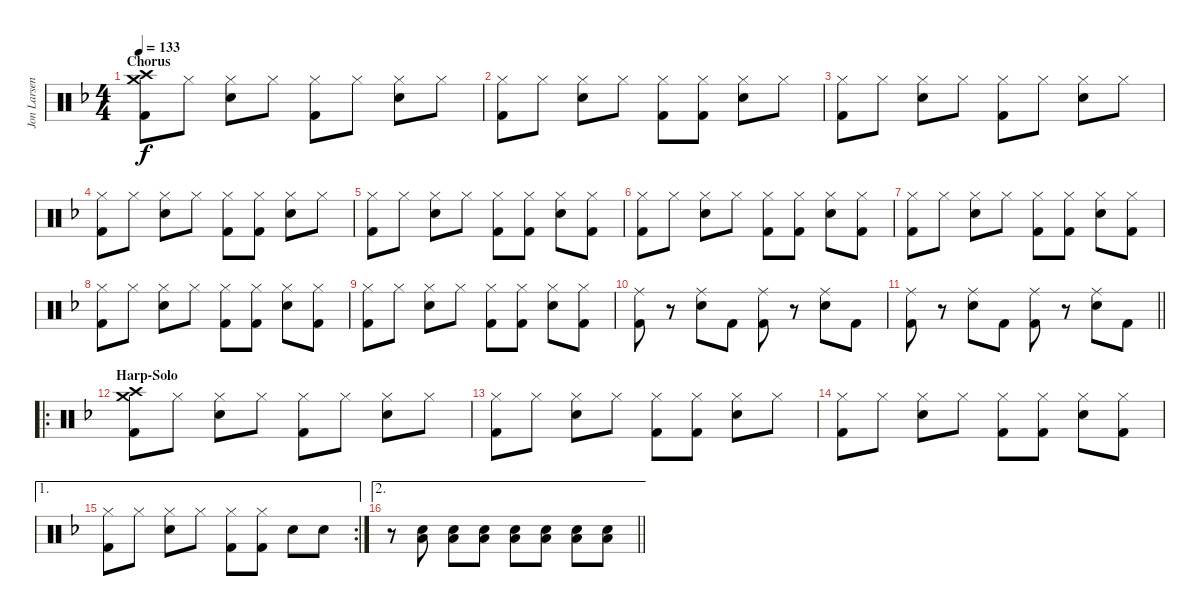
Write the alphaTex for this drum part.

\track ("Jon Larsen" "Jon Larsen") {instrument percussion}
\staff {score}
\articulation defaults
\ts (4 4)
\section ("" "Chorus")
\tempo 133
\clef neutral
\ks f
("Crash medium (hit)" "Crash high (hit)" "Kick (hit) 2").8{dy f} "Hi-Hat (closed)".8 ("Hi-Hat (closed)" "Electric Snare (hit)").8 "Hi-Hat (closed)".8 ("Hi-Hat (closed)" "Kick (hit) 2").8 "Hi-Hat (closed)".8 ("Hi-Hat (closed)" "Electric Snare (hit)").8 "Hi-Hat (closed)".8 |
("Hi-Hat (closed)" "Kick (hit) 2").8 "Hi-Hat (closed)".8 ("Hi-Hat (closed)" "Electric Snare (hit)").8 "Hi-Hat (closed)".8 ("Hi-Hat (closed)" "Kick (hit) 2").8 ("Hi-Hat (closed)" "Kick (hit) 2").8 ("Hi-Hat (closed)" "Electric Snare (hit)").8 "Hi-Hat (closed)".8 |
("Hi-Hat (closed)" "Kick (hit) 2").8 "Hi-Hat (closed)".8 ("Hi-Hat (closed)" "Electric Snare (hit)").8 "Hi-Hat (closed)".8 ("Hi-Hat (closed)" "Kick (hit) 2").8 "Hi-Hat (closed)".8 ("Hi-Hat (closed)" "Electric Snare (hit)").8 "Hi-Hat (closed)".8 |
("Hi-Hat (closed)" "Kick (hit) 2").8 "Hi-Hat (closed)".8 ("Hi-Hat (closed)" "Electric Snare (hit)").8 "Hi-Hat (closed)".8 ("Hi-Hat (closed)" "Kick (hit) 2").8 ("Hi-Hat (closed)" "Kick (hit) 2").8 ("Hi-Hat (closed)" "Electric Snare (hit)").8 "Hi-Hat (closed)".8 |
("Hi-Hat (closed)" "Kick (hit) 2").8 "Hi-Hat (closed)".8 ("Hi-Hat (closed)" "Electric Snare (hit)").8 "Hi-Hat (closed)".8 ("Hi-Hat (closed)" "Kick (hit) 2").8 ("Hi-Hat (closed)" "Kick (hit) 2").8 ("Hi-Hat (closed)" "Electric Snare (hit)").8 ("Hi-Hat (closed)" "Kick (hit) 2").8 |
("Hi-Hat (closed)" "Kick (hit) 2").8 "Hi-Hat (closed)".8 ("Hi-Hat (closed)" "Electric Snare (hit)").8 "Hi-Hat (closed)".8 ("Hi-Hat (closed)" "Kick (hit) 2").8 ("Hi-Hat (closed)" "Kick (hit) 2").8 ("Hi-Hat (closed)" "Electric Snare (hit)").8 ("Hi-Hat (closed)" "Kick (hit) 2").8 |
("Hi-Hat (closed)" "Kick (hit) 2").8 "Hi-Hat (closed)".8 ("Hi-Hat (closed)" "Electric Snare (hit)").8 "Hi-Hat (closed)".8 ("Hi-Hat (closed)" "Kick (hit) 2").8 ("Hi-Hat (closed)" "Kick (hit) 2").8 ("Hi-Hat (closed)" "Electric Snare (hit)").8 ("Hi-Hat (closed)" "Kick (hit) 2").8 |
("Hi-Hat (closed)" "Kick (hit) 2").8 "Hi-Hat (closed)".8 ("Hi-Hat (closed)" "Electric Snare (hit)").8 "Hi-Hat (closed)".8 ("Hi-Hat (closed)" "Kick (hit) 2").8 ("Hi-Hat (closed)" "Kick (hit) 2").8 ("Hi-Hat (closed)" "Electric Snare (hit)").8 ("Hi-Hat (closed)" "Kick (hit) 2").8 |
("Hi-Hat (closed)" "Kick (hit) 2").8 "Hi-Hat (closed)".8 ("Hi-Hat (closed)" "Electric Snare (hit)").8 "Hi-Hat (closed)".8 ("Hi-Hat (closed)" "Kick (hit) 2").8 ("Hi-Hat (closed)" "Kick (hit) 2").8 ("Hi-Hat (closed)" "Electric Snare (hit)").8 ("Hi-Hat (closed)" "Kick (hit) 2").8 |
("Ride (middle)" "Kick (hit) 2").8 r.8 ("Ride (middle)" "Electric Snare (hit)").8 "Kick (hit) 2".8 ("Ride (middle)" "Kick (hit) 2").8 r.8 ("Ride (middle)" "Electric Snare (hit)").8 "Kick (hit) 2".8 |
\barLineRight lightlight
("Ride (middle)" "Kick (hit) 2").8 r.8 ("Ride (middle)" "Electric Snare (hit)").8 "Kick (hit) 2".8 ("Ride (middle)" "Kick (hit) 2").8 r.8 ("Ride (middle)" "Electric Snare (hit)").8 "Kick (hit) 2".8 |
\ro
\section ("" "Harp-Solo")
("Crash medium (hit)" "Crash high (hit)" "Kick (hit) 2").8 "Hi-Hat (closed)".8 ("Hi-Hat (closed)" "Electric Snare (hit)").8 "Hi-Hat (closed)".8 ("Hi-Hat (closed)" "Kick (hit) 2").8 "Hi-Hat (closed)".8 ("Hi-Hat (closed)" "Electric Snare (hit)").8 "Hi-Hat (closed)".8 |
("Hi-Hat (closed)" "Kick (hit) 2").8 "Hi-Hat (closed)".8 ("Hi-Hat (closed)" "Electric Snare (hit)").8 "Hi-Hat (closed)".8 ("Hi-Hat (closed)" "Kick (hit) 2").8 ("Hi-Hat (closed)" "Kick (hit) 2").8 ("Hi-Hat (closed)" "Electric Snare (hit)").8 "Hi-Hat (closed)".8 |
("Hi-Hat (closed)" "Kick (hit) 2").8 "Hi-Hat (closed)".8 ("Hi-Hat (closed)" "Electric Snare (hit)").8 "Hi-Hat (closed)".8 ("Hi-Hat (closed)" "Kick (hit) 2").8 ("Hi-Hat (closed)" "Kick (hit) 2").8 ("Hi-Hat (closed)" "Electric Snare (hit)").8 ("Hi-Hat (closed)" "Kick (hit) 2").8 |
\ae 1
\rc 2
("Hi-Hat (closed)" "Kick (hit) 2").8 "Hi-Hat (closed)".8 ("Hi-Hat (closed)" "Electric Snare (hit)").8 "Hi-Hat (closed)".8 ("Hi-Hat (closed)" "Kick (hit) 2").8 ("Hi-Hat (closed)" "Kick (hit) 2").8 "Electric Snare (hit)".8 "Electric Snare (hit)".8 |
\ae 2
\barLineRight lightlight
r.8 ("Low Tom (hit)" "Electric Snare (hit)").8 ("Low Tom (hit)" "Electric Snare (hit)").8 ("Low Tom (hit)" "Electric Snare (hit)").8 ("Low Tom (hit)" "Electric Snare (hit)").8 ("Low Tom (hit)" "Electric Snare (hit)").8 ("Low Tom (hit)" "Electric Snare (hit)").8 ("Low Tom (hit)" "Electric Snare (hit)").8
